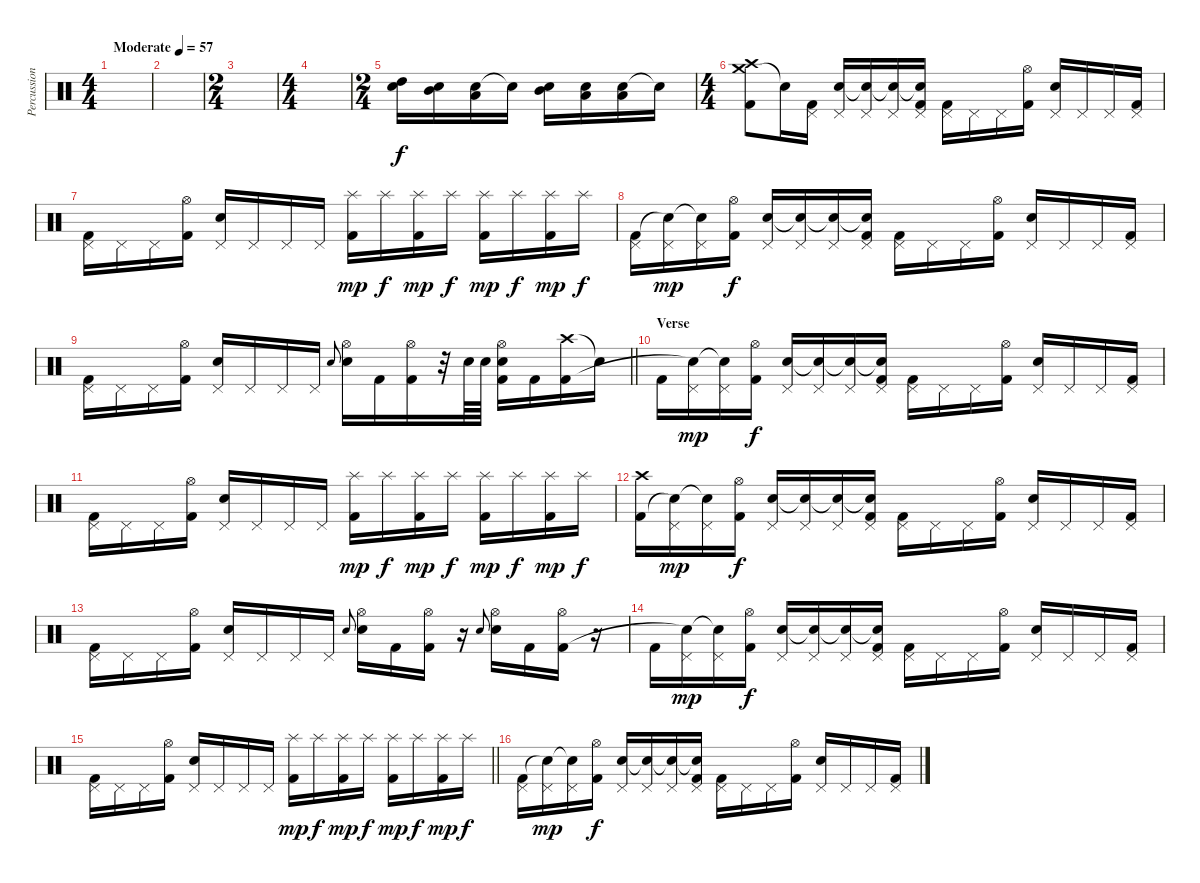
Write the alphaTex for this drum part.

\track ("Percussion" "Percussion") {instrument percussion}
\staff {score}
\articulation defaults
\ts (4 4)
\tempo (57 "Moderate")
\clef neutral
\ks c
|
|
\ts (2 4)
|
\ts (4 4)
|
\ts (2 4)
("Snare (hit) 2" "High Tom (hit)").16 ("Snare (hit) 2" "Mid Tom (hit)").16 ("Snare (hit) 2" "Low Tom (hit)").16 "Snare (hit)"{t}.16 ("Snare (hit) 2" "Mid Tom (hit)").16 ("Snare (hit) 2" "Low Tom (hit)").16 ("Snare (hit) 2" "Low Tom (hit)").16 "Snare (hit)"{t}.16 |
\ts (4 4)
("Crash medium (hit)" "Crash high (hit)" "Kick (hit) 2").8 "Snare (hit)"{t}.16 ("Pedal Hi-Hat (hit)" "Kick (hit) 2").16 ("Pedal Hi-Hat (hit)" "Snare (hit) 2").16 ("Pedal Hi-Hat (hit)" "Snare (hit)"{t}).16 ("Pedal Hi-Hat (hit)" "Snare (hit)"{t}).16 ("Pedal Hi-Hat (hit)" "Snare (hit)"{t} "Kick (hit) 2").16 ("Pedal Hi-Hat (hit)" "Kick (hit) 2").16 "Pedal Hi-Hat (hit)".16 "Pedal Hi-Hat (hit)".16 ("Hi-Hat (open)" "Kick (hit) 2").16 ("Pedal Hi-Hat (hit)" "Snare (hit) 2").16 "Pedal Hi-Hat (hit)".16 "Pedal Hi-Hat (hit)".16 ("Pedal Hi-Hat (hit)" "Kick (hit) 2").16 |
("Pedal Hi-Hat (hit)" "Kick (hit) 2").16 "Pedal Hi-Hat (hit)".16 "Pedal Hi-Hat (hit)".16 ("Hi-Hat (open)" "Kick (hit) 2").16 ("Pedal Hi-Hat (hit)" "Snare (hit) 2").16 "Pedal Hi-Hat (hit)".16 "Pedal Hi-Hat (hit)".16 "Pedal Hi-Hat (hit)".16 ("Splash (hit)" "Kick (hit) 2").16{dy mp} "Splash (hit)".16{dy f} ("Splash (hit)" "Kick (hit) 2").16{dy mp} "Splash (hit)".16{dy f} ("Splash (hit)" "Kick (hit) 2").16{dy mp} "Splash (hit)".16{dy f} ("Splash (hit)" "Kick (hit) 2").16{dy mp} "Splash (hit)".16{dy f} |
("Pedal Hi-Hat (hit)" "Kick (hit) 2").16 ("Pedal Hi-Hat (hit)" "Snare (hit)"{t}).16{dy mp} ("Pedal Hi-Hat (hit)" "Snare (hit)"{t}).16 ("Hi-Hat (open)" "Kick (hit) 2").16{dy f} ("Pedal Hi-Hat (hit)" "Snare (hit) 2").16 ("Pedal Hi-Hat (hit)" "Snare (hit)"{t}).16 ("Pedal Hi-Hat (hit)" "Snare (hit)"{t}).16 ("Pedal Hi-Hat (hit)" "Snare (hit)"{t} "Kick (hit) 2").16 ("Pedal Hi-Hat (hit)" "Kick (hit) 2").16 "Pedal Hi-Hat (hit)".16 "Pedal Hi-Hat (hit)".16 ("Hi-Hat (open)" "Kick (hit) 2").16 ("Pedal Hi-Hat (hit)" "Snare (hit) 2").16 "Pedal Hi-Hat (hit)".16 "Pedal Hi-Hat (hit)".16 ("Pedal Hi-Hat (hit)" "Kick (hit) 2").16 |
\barLineRight lightlight
("Pedal Hi-Hat (hit)" "Kick (hit) 2").16 "Pedal Hi-Hat (hit)".16 "Pedal Hi-Hat (hit)".16 ("Hi-Hat (open)" "Kick (hit) 2").16 ("Pedal Hi-Hat (hit)" "Snare (hit) 2").16 "Pedal Hi-Hat (hit)".16 "Pedal Hi-Hat (hit)".16 "Pedal Hi-Hat (hit)".16 "Snare (hit) 2".8{gr onbeat} ("Hi-Hat (open)" "Snare (hit) 2").16 "Kick (hit) 2".16 ("Hi-Hat (open)" "Kick (hit) 2").16 r.32 "Snare (hit) 2".64 "Snare (hit) 2".64 ("Hi-Hat (open)" "Snare (hit) 2" "Kick (hit) 2").16 "Kick (hit) 2".16 ("Crash high (hit)" "Kick (hit) 2").16 "Snare (hit)"{t}.16 |
\section ("" "Verse")
"Kick (hit) 2".16 ("Pedal Hi-Hat (hit)" "Snare (hit)"{t}).16{dy mp} ("Pedal Hi-Hat (hit)" "Snare (hit)"{t}).16 ("Hi-Hat (open)" "Kick (hit) 2").16{dy f} ("Pedal Hi-Hat (hit)" "Snare (hit) 2").16 ("Pedal Hi-Hat (hit)" "Snare (hit)"{t}).16 ("Pedal Hi-Hat (hit)" "Snare (hit)"{t}).16 ("Pedal Hi-Hat (hit)" "Snare (hit)"{t} "Kick (hit) 2").16 ("Pedal Hi-Hat (hit)" "Kick (hit) 2").16 "Pedal Hi-Hat (hit)".16 "Pedal Hi-Hat (hit)".16 ("Hi-Hat (open)" "Kick (hit) 2").16 ("Pedal Hi-Hat (hit)" "Snare (hit) 2").16 "Pedal Hi-Hat (hit)".16 "Pedal Hi-Hat (hit)".16 ("Pedal Hi-Hat (hit)" "Kick (hit) 2").16 |
("Pedal Hi-Hat (hit)" "Kick (hit) 2").16 "Pedal Hi-Hat (hit)".16 "Pedal Hi-Hat (hit)".16 ("Hi-Hat (open)" "Kick (hit) 2").16 ("Pedal Hi-Hat (hit)" "Snare (hit) 2").16 "Pedal Hi-Hat (hit)".16 "Pedal Hi-Hat (hit)".16 "Pedal Hi-Hat (hit)".16 ("Splash (hit)" "Kick (hit) 2").16{dy mp} "Splash (hit)".16{dy f} ("Splash (hit)" "Kick (hit) 2").16{dy mp} "Splash (hit)".16{dy f} ("Splash (hit)" "Kick (hit) 2").16{dy mp} "Splash (hit)".16{dy f} ("Splash (hit)" "Kick (hit) 2").16{dy mp} "Splash (hit)".16{dy f} |
("Crash high (hit)" "Kick (hit) 2").16 ("Pedal Hi-Hat (hit)" "Snare (hit)"{t}).16{dy mp} ("Pedal Hi-Hat (hit)" "Snare (hit)"{t}).16 ("Hi-Hat (open)" "Kick (hit) 2").16{dy f} ("Pedal Hi-Hat (hit)" "Snare (hit) 2").16 ("Pedal Hi-Hat (hit)" "Snare (hit)"{t}).16 ("Pedal Hi-Hat (hit)" "Snare (hit)"{t}).16 ("Pedal Hi-Hat (hit)" "Snare (hit)"{t} "Kick (hit) 2").16 ("Pedal Hi-Hat (hit)" "Kick (hit) 2").16 "Pedal Hi-Hat (hit)".16 "Pedal Hi-Hat (hit)".16 ("Hi-Hat (open)" "Kick (hit) 2").16 ("Pedal Hi-Hat (hit)" "Snare (hit) 2").16 "Pedal Hi-Hat (hit)".16 "Pedal Hi-Hat (hit)".16 ("Pedal Hi-Hat (hit)" "Kick (hit) 2").16 |
("Pedal Hi-Hat (hit)" "Kick (hit) 2").16 "Pedal Hi-Hat (hit)".16 "Pedal Hi-Hat (hit)".16 ("Hi-Hat (open)" "Kick (hit) 2").16 ("Pedal Hi-Hat (hit)" "Snare (hit) 2").16 "Pedal Hi-Hat (hit)".16 "Pedal Hi-Hat (hit)".16 "Pedal Hi-Hat (hit)".16 "Snare (hit) 2".8{gr onbeat} ("Hi-Hat (open)" "Snare (hit) 2").16 "Kick (hit) 2".16 ("Hi-Hat (open)" "Kick (hit) 2").16 r.16 "Snare (hit) 2".8{gr onbeat} ("Hi-Hat (open)" "Snare (hit) 2").16 "Kick (hit) 2".16 ("Hi-Hat (open)" "Kick (hit) 2").16 r.16 |
"Kick (hit) 2".16 ("Pedal Hi-Hat (hit)" "Snare (hit)"{t}).16{dy mp} ("Pedal Hi-Hat (hit)" "Snare (hit)"{t}).16 ("Hi-Hat (open)" "Kick (hit) 2").16{dy f} ("Pedal Hi-Hat (hit)" "Snare (hit) 2").16 ("Pedal Hi-Hat (hit)" "Snare (hit)"{t}).16 ("Pedal Hi-Hat (hit)" "Snare (hit)"{t}).16 ("Pedal Hi-Hat (hit)" "Snare (hit)"{t} "Kick (hit) 2").16 ("Pedal Hi-Hat (hit)" "Kick (hit) 2").16 "Pedal Hi-Hat (hit)".16 "Pedal Hi-Hat (hit)".16 ("Hi-Hat (open)" "Kick (hit) 2").16 ("Pedal Hi-Hat (hit)" "Snare (hit) 2").16 "Pedal Hi-Hat (hit)".16 "Pedal Hi-Hat (hit)".16 ("Pedal Hi-Hat (hit)" "Kick (hit) 2").16 |
\barLineRight lightlight
("Pedal Hi-Hat (hit)" "Kick (hit) 2").16 "Pedal Hi-Hat (hit)".16 "Pedal Hi-Hat (hit)".16 ("Hi-Hat (open)" "Kick (hit) 2").16 ("Pedal Hi-Hat (hit)" "Snare (hit) 2").16 "Pedal Hi-Hat (hit)".16 "Pedal Hi-Hat (hit)".16 "Pedal Hi-Hat (hit)".16 ("Splash (hit)" "Kick (hit) 2").16{dy mp} "Splash (hit)".16{dy f} ("Splash (hit)" "Kick (hit) 2").16{dy mp} "Splash (hit)".16{dy f} ("Splash (hit)" "Kick (hit) 2").16{dy mp} "Splash (hit)".16{dy f} ("Splash (hit)" "Kick (hit) 2").16{dy mp} "Splash (hit)".16{dy f} |
("Pedal Hi-Hat (hit)" "Kick (hit) 2").16 ("Pedal Hi-Hat (hit)" "Snare (hit)"{t}).16{dy mp} ("Pedal Hi-Hat (hit)" "Snare (hit)"{t}).16 ("Hi-Hat (open)" "Kick (hit) 2").16{dy f} ("Pedal Hi-Hat (hit)" "Snare (hit) 2").16 ("Pedal Hi-Hat (hit)" "Snare (hit)"{t}).16 ("Pedal Hi-Hat (hit)" "Snare (hit)"{t}).16 ("Pedal Hi-Hat (hit)" "Snare (hit)"{t} "Kick (hit) 2").16 ("Pedal Hi-Hat (hit)" "Kick (hit) 2").16 "Pedal Hi-Hat (hit)".16 "Pedal Hi-Hat (hit)".16 ("Hi-Hat (open)" "Kick (hit) 2").16 ("Pedal Hi-Hat (hit)" "Snare (hit) 2").16 "Pedal Hi-Hat (hit)".16 "Pedal Hi-Hat (hit)".16 ("Pedal Hi-Hat (hit)" "Kick (hit) 2").16
